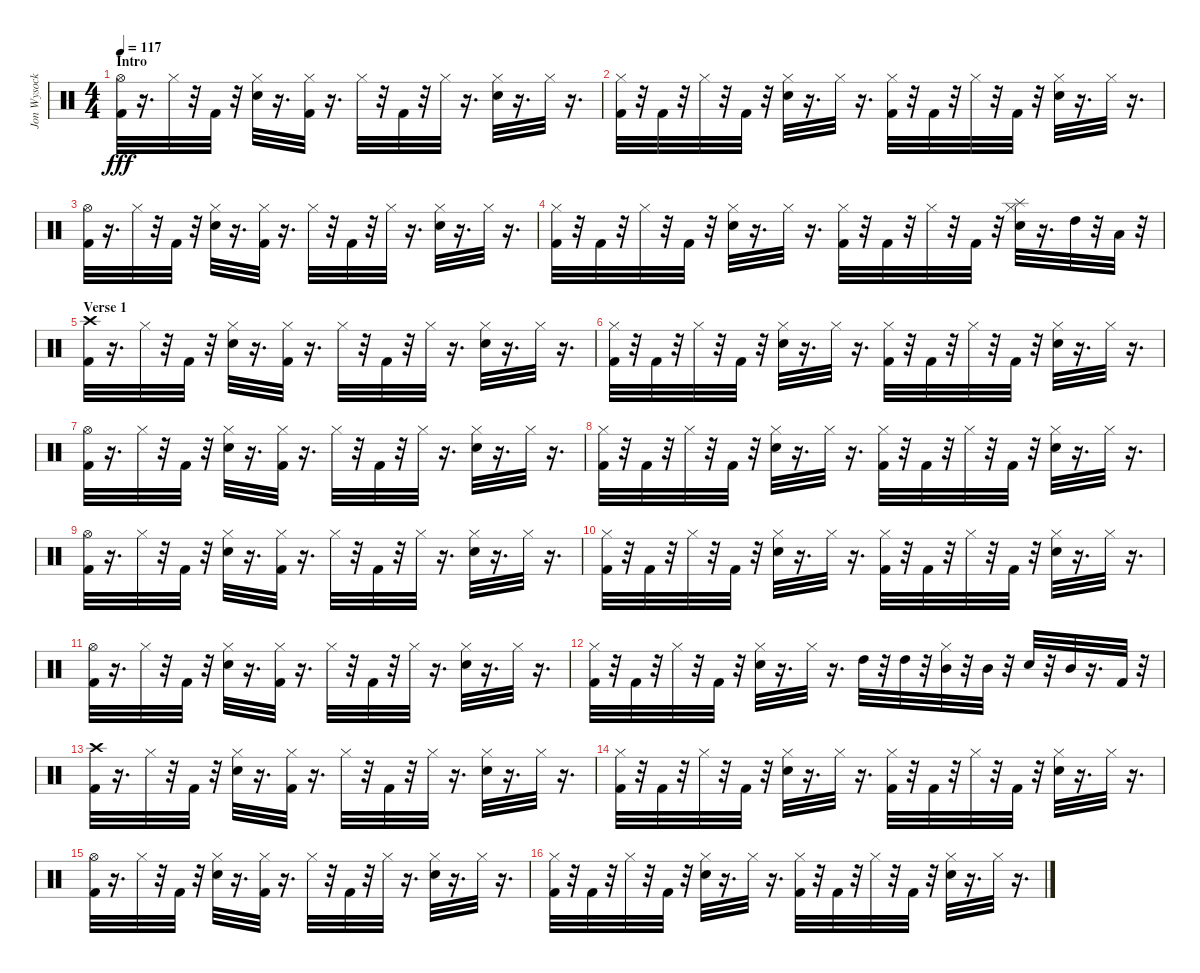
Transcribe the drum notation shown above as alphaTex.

\track ("Jon Wysocki - Drums" "Jon Wysock") {instrument percussion}
\staff {score}
\articulation defaults
\ts (4 4)
\section ("" "Intro")
\tempo 117
\clef neutral
\ks c
("Kick (hit) 2" "Hi-Hat (open)").32{dy fff} r.16{d} "Hi-Hat (closed)".32 r.32 "Kick (hit) 2".32 r.32 ("Electric Snare (hit)" "Hi-Hat (closed)").32 r.16{d} ("Hi-Hat (closed)" "Kick (hit) 2").32 r.16{d} "Hi-Hat (closed)".32 r.32 "Kick (hit) 2".32 r.32 "Hi-Hat (closed)".32 r.16{d} ("Electric Snare (hit)" "Hi-Hat (closed)").32 r.16{d} "Hi-Hat (closed)".32 r.16{d} |
("Hi-Hat (closed)" "Kick (hit) 2").32 r.32 "Kick (hit) 2".32 r.32 "Hi-Hat (closed)".32 r.32 "Kick (hit) 2".32 r.32 ("Hi-Hat (closed)" "Electric Snare (hit)").32 r.16{d} "Hi-Hat (closed)".32 r.16{d} ("Hi-Hat (closed)" "Kick (hit) 2").32 r.32 "Kick (hit) 2".32 r.32 "Hi-Hat (closed)".32 r.32 "Kick (hit) 2".32 r.32 ("Hi-Hat (closed)" "Electric Snare (hit)").32 r.16{d} "Hi-Hat (closed)".32 r.16{d} |
("Kick (hit) 2" "Hi-Hat (open)").32 r.16{d} "Hi-Hat (closed)".32 r.32 "Kick (hit) 2".32 r.32 ("Electric Snare (hit)" "Hi-Hat (closed)").32 r.16{d} ("Hi-Hat (closed)" "Kick (hit) 2").32 r.16{d} "Hi-Hat (closed)".32 r.32 "Kick (hit) 2".32 r.32 "Hi-Hat (closed)".32 r.16{d} ("Electric Snare (hit)" "Hi-Hat (closed)").32 r.16{d} "Hi-Hat (closed)".32 r.16{d} |
("Hi-Hat (closed)" "Kick (hit) 2").32 r.32 "Kick (hit) 2".32 r.32 "Hi-Hat (closed)".32 r.32 "Kick (hit) 2".32 r.32 ("Hi-Hat (closed)" "Electric Snare (hit)").32 r.16{d} "Hi-Hat (closed)".32 r.16{d} ("Hi-Hat (closed)" "Kick (hit) 2").32 r.32 "Kick (hit) 2".32 r.32 "Hi-Hat (closed)".32 r.32 "Kick (hit) 2".32 r.32 ("Splash (hit)" "Hi-Hat (closed)" "Electric Snare (hit)").32 r.16{d} "High Tom (hit)".32 r.32 "Low Tom (hit)".32 r.32 |
\section ("" "Verse 1")
("Crash high (hit)" "Kick (hit) 2").32 r.16{d} "Hi-Hat (closed)".32 r.32 "Kick (hit) 2".32 r.32 ("Electric Snare (hit)" "Hi-Hat (closed)").32 r.16{d} ("Hi-Hat (closed)" "Kick (hit) 2").32 r.16{d} "Hi-Hat (closed)".32 r.32 "Kick (hit) 2".32 r.32 "Hi-Hat (closed)".32 r.16{d} ("Electric Snare (hit)" "Hi-Hat (closed)").32 r.16{d} "Hi-Hat (closed)".32 r.16{d} |
("Hi-Hat (closed)" "Kick (hit) 2").32 r.32 "Kick (hit) 2".32 r.32 "Hi-Hat (closed)".32 r.32 "Kick (hit) 2".32 r.32 ("Hi-Hat (closed)" "Electric Snare (hit)").32 r.16{d} "Hi-Hat (closed)".32 r.16{d} ("Hi-Hat (closed)" "Kick (hit) 2").32 r.32 "Kick (hit) 2".32 r.32 "Hi-Hat (closed)".32 r.32 "Kick (hit) 2".32 r.32 ("Hi-Hat (closed)" "Electric Snare (hit)").32 r.16{d} "Hi-Hat (closed)".32 r.16{d} |
("Kick (hit) 2" "Hi-Hat (open)").32 r.16{d} "Hi-Hat (closed)".32 r.32 "Kick (hit) 2".32 r.32 ("Electric Snare (hit)" "Hi-Hat (closed)").32 r.16{d} ("Hi-Hat (closed)" "Kick (hit) 2").32 r.16{d} "Hi-Hat (closed)".32 r.32 "Kick (hit) 2".32 r.32 "Hi-Hat (closed)".32 r.16{d} ("Electric Snare (hit)" "Hi-Hat (closed)").32 r.16{d} "Hi-Hat (closed)".32 r.16{d} |
("Hi-Hat (closed)" "Kick (hit) 2").32 r.32 "Kick (hit) 2".32 r.32 "Hi-Hat (closed)".32 r.32 "Kick (hit) 2".32 r.32 ("Hi-Hat (closed)" "Electric Snare (hit)").32 r.16{d} "Hi-Hat (closed)".32 r.16{d} ("Hi-Hat (closed)" "Kick (hit) 2").32 r.32 "Kick (hit) 2".32 r.32 "Hi-Hat (closed)".32 r.32 "Kick (hit) 2".32 r.32 ("Hi-Hat (closed)" "Electric Snare (hit)").32 r.16{d} "Hi-Hat (closed)".32 r.16{d} |
("Kick (hit) 2" "Hi-Hat (open)").32 r.16{d} "Hi-Hat (closed)".32 r.32 "Kick (hit) 2".32 r.32 ("Electric Snare (hit)" "Hi-Hat (closed)").32 r.16{d} ("Hi-Hat (closed)" "Kick (hit) 2").32 r.16{d} "Hi-Hat (closed)".32 r.32 "Kick (hit) 2".32 r.32 "Hi-Hat (closed)".32 r.16{d} ("Electric Snare (hit)" "Hi-Hat (closed)").32 r.16{d} "Hi-Hat (closed)".32 r.16{d} |
("Hi-Hat (closed)" "Kick (hit) 2").32 r.32 "Kick (hit) 2".32 r.32 "Hi-Hat (closed)".32 r.32 "Kick (hit) 2".32 r.32 ("Hi-Hat (closed)" "Electric Snare (hit)").32 r.16{d} "Hi-Hat (closed)".32 r.16{d} ("Hi-Hat (closed)" "Kick (hit) 2").32 r.32 "Kick (hit) 2".32 r.32 "Hi-Hat (closed)".32 r.32 "Kick (hit) 2".32 r.32 ("Hi-Hat (closed)" "Electric Snare (hit)").32 r.16{d} "Hi-Hat (closed)".32 r.16{d} |
("Kick (hit) 2" "Hi-Hat (open)").32 r.16{d} "Hi-Hat (closed)".32 r.32 "Kick (hit) 2".32 r.32 ("Electric Snare (hit)" "Hi-Hat (closed)").32 r.16{d} ("Hi-Hat (closed)" "Kick (hit) 2").32 r.16{d} "Hi-Hat (closed)".32 r.32 "Kick (hit) 2".32 r.32 "Hi-Hat (closed)".32 r.16{d} ("Electric Snare (hit)" "Hi-Hat (closed)").32 r.16{d} "Hi-Hat (closed)".32 r.16{d} |
("Hi-Hat (closed)" "Kick (hit) 2").32 r.32 "Kick (hit) 2".32 r.32 "Hi-Hat (closed)".32 r.32 "Kick (hit) 2".32 r.32 ("Hi-Hat (closed)" "Electric Snare (hit)").32 r.16{d} "Hi-Hat (closed)".32 r.16{d} "High Tom (hit)".32 r.32 "High Tom (hit)".32 r.32 ("Hi-Hat (closed)" "Mid Tom (hit)").32 r.32 "Mid Tom (hit)".32 r.32 "Electric Snare (hit)".32 r.32 "Mid Tom (hit)".32 r.16{d} "Kick (hit) 2".32 r.32 |
("Crash high (hit)" "Kick (hit) 2").32 r.16{d} "Hi-Hat (closed)".32 r.32 "Kick (hit) 2".32 r.32 ("Electric Snare (hit)" "Hi-Hat (closed)").32 r.16{d} ("Hi-Hat (closed)" "Kick (hit) 2").32 r.16{d} "Hi-Hat (closed)".32 r.32 "Kick (hit) 2".32 r.32 "Hi-Hat (closed)".32 r.16{d} ("Electric Snare (hit)" "Hi-Hat (closed)").32 r.16{d} "Hi-Hat (closed)".32 r.16{d} |
("Hi-Hat (closed)" "Kick (hit) 2").32 r.32 "Kick (hit) 2".32 r.32 "Hi-Hat (closed)".32 r.32 "Kick (hit) 2".32 r.32 ("Hi-Hat (closed)" "Electric Snare (hit)").32 r.16{d} "Hi-Hat (closed)".32 r.16{d} ("Hi-Hat (closed)" "Kick (hit) 2").32 r.32 "Kick (hit) 2".32 r.32 "Hi-Hat (closed)".32 r.32 "Kick (hit) 2".32 r.32 ("Hi-Hat (closed)" "Electric Snare (hit)").32 r.16{d} "Hi-Hat (closed)".32 r.16{d} |
("Kick (hit) 2" "Hi-Hat (open)").32 r.16{d} "Hi-Hat (closed)".32 r.32 "Kick (hit) 2".32 r.32 ("Electric Snare (hit)" "Hi-Hat (closed)").32 r.16{d} ("Hi-Hat (closed)" "Kick (hit) 2").32 r.16{d} "Hi-Hat (closed)".32 r.32 "Kick (hit) 2".32 r.32 "Hi-Hat (closed)".32 r.16{d} ("Electric Snare (hit)" "Hi-Hat (closed)").32 r.16{d} "Hi-Hat (closed)".32 r.16{d} |
("Hi-Hat (closed)" "Kick (hit) 2").32 r.32 "Kick (hit) 2".32 r.32 "Hi-Hat (closed)".32 r.32 "Kick (hit) 2".32 r.32 ("Hi-Hat (closed)" "Electric Snare (hit)").32 r.16{d} "Hi-Hat (closed)".32 r.16{d} ("Hi-Hat (closed)" "Kick (hit) 2").32 r.32 "Kick (hit) 2".32 r.32 "Hi-Hat (closed)".32 r.32 "Kick (hit) 2".32 r.32 ("Hi-Hat (closed)" "Electric Snare (hit)").32 r.16{d} "Hi-Hat (closed)".32 r.16{d}
